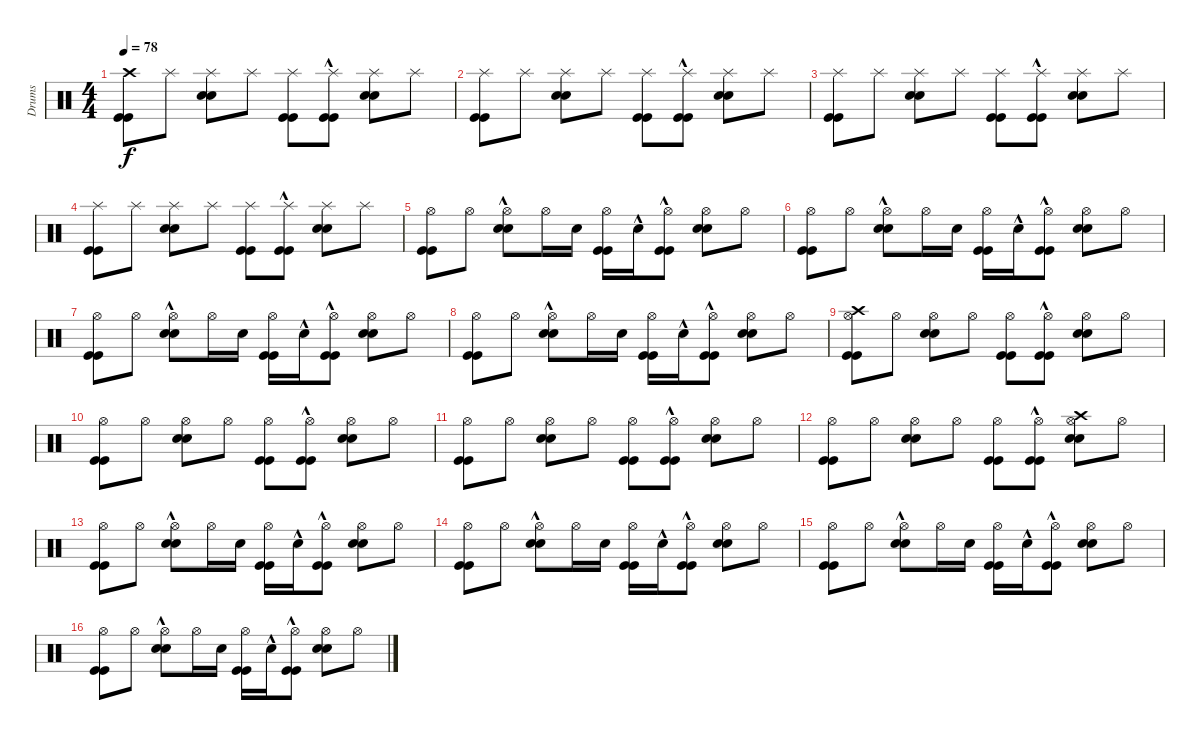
\track ("Drums" "Drums") {instrument percussion}
\staff {score}
\articulation defaults
\ts (4 4)
\tempo 78
\clef neutral
\ks c
("Kick (hit)" "Kick (hit)" "Crash high (hit)").8{dy f} "Splash (hit)".8 ("Snare (hit) 2" "Snare (hit) 2" "Splash (hit)").8 "Splash (hit)".8 ("Kick (hit)" "Kick (hit)" "Splash (hit)").8 ("Kick (hit)"{hac} "Kick (hit)"{hac} "Splash (hit)").8 ("Snare (hit) 2" "Snare (hit) 2" "Splash (hit)").8 "Splash (hit)".8 |
("Kick (hit)" "Kick (hit)" "Splash (hit)").8 "Splash (hit)".8 ("Snare (hit) 2" "Snare (hit) 2" "Splash (hit)").8 "Splash (hit)".8 ("Kick (hit)" "Kick (hit)" "Splash (hit)").8 ("Kick (hit)"{hac} "Kick (hit)"{hac} "Splash (hit)").8 ("Snare (hit) 2" "Snare (hit) 2" "Splash (hit)").8 "Splash (hit)".8 |
("Kick (hit)" "Kick (hit)" "Splash (hit)").8 "Splash (hit)".8 ("Snare (hit) 2" "Snare (hit) 2" "Splash (hit)").8 "Splash (hit)".8 ("Kick (hit)" "Kick (hit)" "Splash (hit)").8 ("Kick (hit)"{hac} "Kick (hit)"{hac} "Splash (hit)").8 ("Snare (hit) 2" "Snare (hit) 2" "Splash (hit)").8 "Splash (hit)".8 |
("Kick (hit)" "Kick (hit)" "Splash (hit)").8 "Splash (hit)".8 ("Snare (hit) 2" "Snare (hit) 2" "Splash (hit)").8 "Splash (hit)".8 ("Kick (hit)" "Kick (hit)" "Splash (hit)").8 ("Kick (hit)"{hac} "Kick (hit)"{hac} "Splash (hit)").8 ("Snare (hit) 2" "Snare (hit) 2" "Splash (hit)").8 "Splash (hit)".8 |
("Kick (hit)" "Kick (hit)" "Hi-Hat (open)").8 "Hi-Hat (open)".8 ("Snare (hit) 2"{hac} "Snare (hit) 2"{hac} "Hi-Hat (open)").8 "Hi-Hat (open)".16 "Snare (hit) 2".16 ("Kick (hit)" "Kick (hit)" "Hi-Hat (open)").16 "Snare (hit) 2"{hac}.16 ("Kick (hit)"{hac} "Kick (hit)"{hac} "Hi-Hat (open)").8 ("Snare (hit) 2" "Snare (hit) 2" "Hi-Hat (open)").8 "Hi-Hat (open)".8 |
("Kick (hit)" "Kick (hit)" "Hi-Hat (open)").8 "Hi-Hat (open)".8 ("Snare (hit) 2"{hac} "Snare (hit) 2"{hac} "Hi-Hat (open)").8 "Hi-Hat (open)".16 "Snare (hit) 2".16 ("Kick (hit)" "Kick (hit)" "Hi-Hat (open)").16 "Snare (hit) 2"{hac}.16 ("Kick (hit)"{hac} "Kick (hit)"{hac} "Hi-Hat (open)").8 ("Snare (hit) 2" "Snare (hit) 2" "Hi-Hat (open)").8 "Hi-Hat (open)".8 |
("Kick (hit)" "Kick (hit)" "Hi-Hat (open)").8 "Hi-Hat (open)".8 ("Snare (hit) 2"{hac} "Snare (hit) 2"{hac} "Hi-Hat (open)").8 "Hi-Hat (open)".16 "Snare (hit) 2".16 ("Kick (hit)" "Kick (hit)" "Hi-Hat (open)").16 "Snare (hit) 2"{hac}.16 ("Kick (hit)"{hac} "Kick (hit)"{hac} "Hi-Hat (open)").8 ("Snare (hit) 2" "Snare (hit) 2" "Hi-Hat (open)").8 "Hi-Hat (open)".8 |
("Kick (hit)" "Kick (hit)" "Hi-Hat (open)").8 "Hi-Hat (open)".8 ("Snare (hit) 2"{hac} "Snare (hit) 2"{hac} "Hi-Hat (open)").8 "Hi-Hat (open)".16 "Snare (hit) 2".16 ("Kick (hit)" "Kick (hit)" "Hi-Hat (open)").16 "Snare (hit) 2"{hac}.16 ("Kick (hit)"{hac} "Kick (hit)"{hac} "Hi-Hat (open)").8 ("Snare (hit) 2" "Snare (hit) 2" "Hi-Hat (open)").8 "Hi-Hat (open)".8 |
("Kick (hit)" "Kick (hit)" "Hi-Hat (open)" "Crash high (hit)").8 "Hi-Hat (open)".8 ("Snare (hit) 2" "Snare (hit) 2" "Hi-Hat (open)").8 "Hi-Hat (open)".8 ("Kick (hit)" "Kick (hit)" "Hi-Hat (open)").8 ("Kick (hit)"{hac} "Kick (hit)"{hac} "Hi-Hat (open)").8 ("Snare (hit) 2" "Snare (hit) 2" "Hi-Hat (open)").8 "Hi-Hat (open)".8 |
("Kick (hit)" "Kick (hit)" "Hi-Hat (open)").8 "Hi-Hat (open)".8 ("Snare (hit) 2" "Snare (hit) 2" "Hi-Hat (open)").8 "Hi-Hat (open)".8 ("Kick (hit)" "Kick (hit)" "Hi-Hat (open)").8 ("Kick (hit)"{hac} "Kick (hit)"{hac} "Hi-Hat (open)").8 ("Snare (hit) 2" "Snare (hit) 2" "Hi-Hat (open)").8 "Hi-Hat (open)".8 |
("Kick (hit)" "Kick (hit)" "Hi-Hat (open)").8 "Hi-Hat (open)".8 ("Snare (hit) 2" "Snare (hit) 2" "Hi-Hat (open)").8 "Hi-Hat (open)".8 ("Kick (hit)" "Kick (hit)" "Hi-Hat (open)").8 ("Kick (hit)"{hac} "Kick (hit)"{hac} "Hi-Hat (open)").8 ("Snare (hit) 2" "Snare (hit) 2" "Hi-Hat (open)").8 "Hi-Hat (open)".8 |
("Kick (hit)" "Kick (hit)" "Hi-Hat (open)").8 "Hi-Hat (open)".8 ("Snare (hit) 2" "Snare (hit) 2" "Hi-Hat (open)").8 "Hi-Hat (open)".8 ("Kick (hit)" "Kick (hit)" "Hi-Hat (open)").8 ("Kick (hit)"{hac} "Kick (hit)"{hac} "Hi-Hat (open)").8 ("Snare (hit) 2" "Snare (hit) 2" "Hi-Hat (open)" "Crash high (hit)").8 "Hi-Hat (open)".8 |
("Kick (hit)" "Kick (hit)" "Hi-Hat (open)").8 "Hi-Hat (open)".8 ("Snare (hit) 2"{hac} "Snare (hit) 2"{hac} "Hi-Hat (open)").8 "Hi-Hat (open)".16 "Snare (hit) 2".16 ("Kick (hit)" "Kick (hit)" "Hi-Hat (open)").16 "Snare (hit) 2"{hac}.16 ("Kick (hit)"{hac} "Kick (hit)"{hac} "Hi-Hat (open)").8 ("Snare (hit) 2" "Snare (hit) 2" "Hi-Hat (open)").8 "Hi-Hat (open)".8 |
("Kick (hit)" "Kick (hit)" "Hi-Hat (open)").8 "Hi-Hat (open)".8 ("Snare (hit) 2"{hac} "Snare (hit) 2"{hac} "Hi-Hat (open)").8 "Hi-Hat (open)".16 "Snare (hit) 2".16 ("Kick (hit)" "Kick (hit)" "Hi-Hat (open)").16 "Snare (hit) 2"{hac}.16 ("Kick (hit)"{hac} "Kick (hit)"{hac} "Hi-Hat (open)").8 ("Snare (hit) 2" "Snare (hit) 2" "Hi-Hat (open)").8 "Hi-Hat (open)".8 |
("Kick (hit)" "Kick (hit)" "Hi-Hat (open)").8 "Hi-Hat (open)".8 ("Snare (hit) 2"{hac} "Snare (hit) 2"{hac} "Hi-Hat (open)").8 "Hi-Hat (open)".16 "Snare (hit) 2".16 ("Kick (hit)" "Kick (hit)" "Hi-Hat (open)").16 "Snare (hit) 2"{hac}.16 ("Kick (hit)"{hac} "Kick (hit)"{hac} "Hi-Hat (open)").8 ("Snare (hit) 2" "Snare (hit) 2" "Hi-Hat (open)").8 "Hi-Hat (open)".8 |
("Kick (hit)" "Kick (hit)" "Hi-Hat (open)").8 "Hi-Hat (open)".8 ("Snare (hit) 2"{hac} "Snare (hit) 2"{hac} "Hi-Hat (open)").8 "Hi-Hat (open)".16 "Snare (hit) 2".16 ("Kick (hit)" "Kick (hit)" "Hi-Hat (open)").16 "Snare (hit) 2"{hac}.16 ("Kick (hit)"{hac} "Kick (hit)"{hac} "Hi-Hat (open)").8 ("Snare (hit) 2" "Snare (hit) 2" "Hi-Hat (open)").8 "Hi-Hat (open)".8
